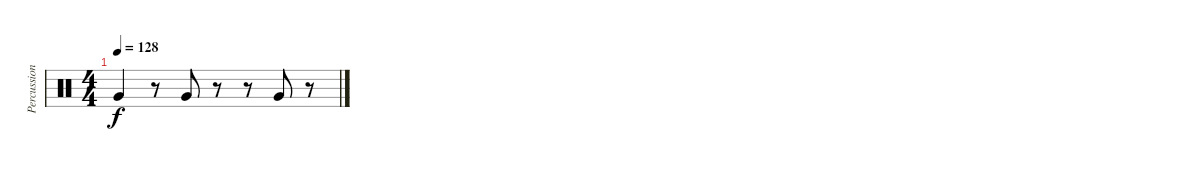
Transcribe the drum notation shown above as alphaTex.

\track ("Percussions" "Percussion") {instrument percussion}
\staff {score}
\articulation defaults
\ts (4 4)
\tempo 128
\clef neutral
\ks c "Very Low Tom (hit)".4{dy f}
r.8 "Very Low Tom (hit)".8 r.8 r.8 "Very Low Tom (hit)".8 r.8
